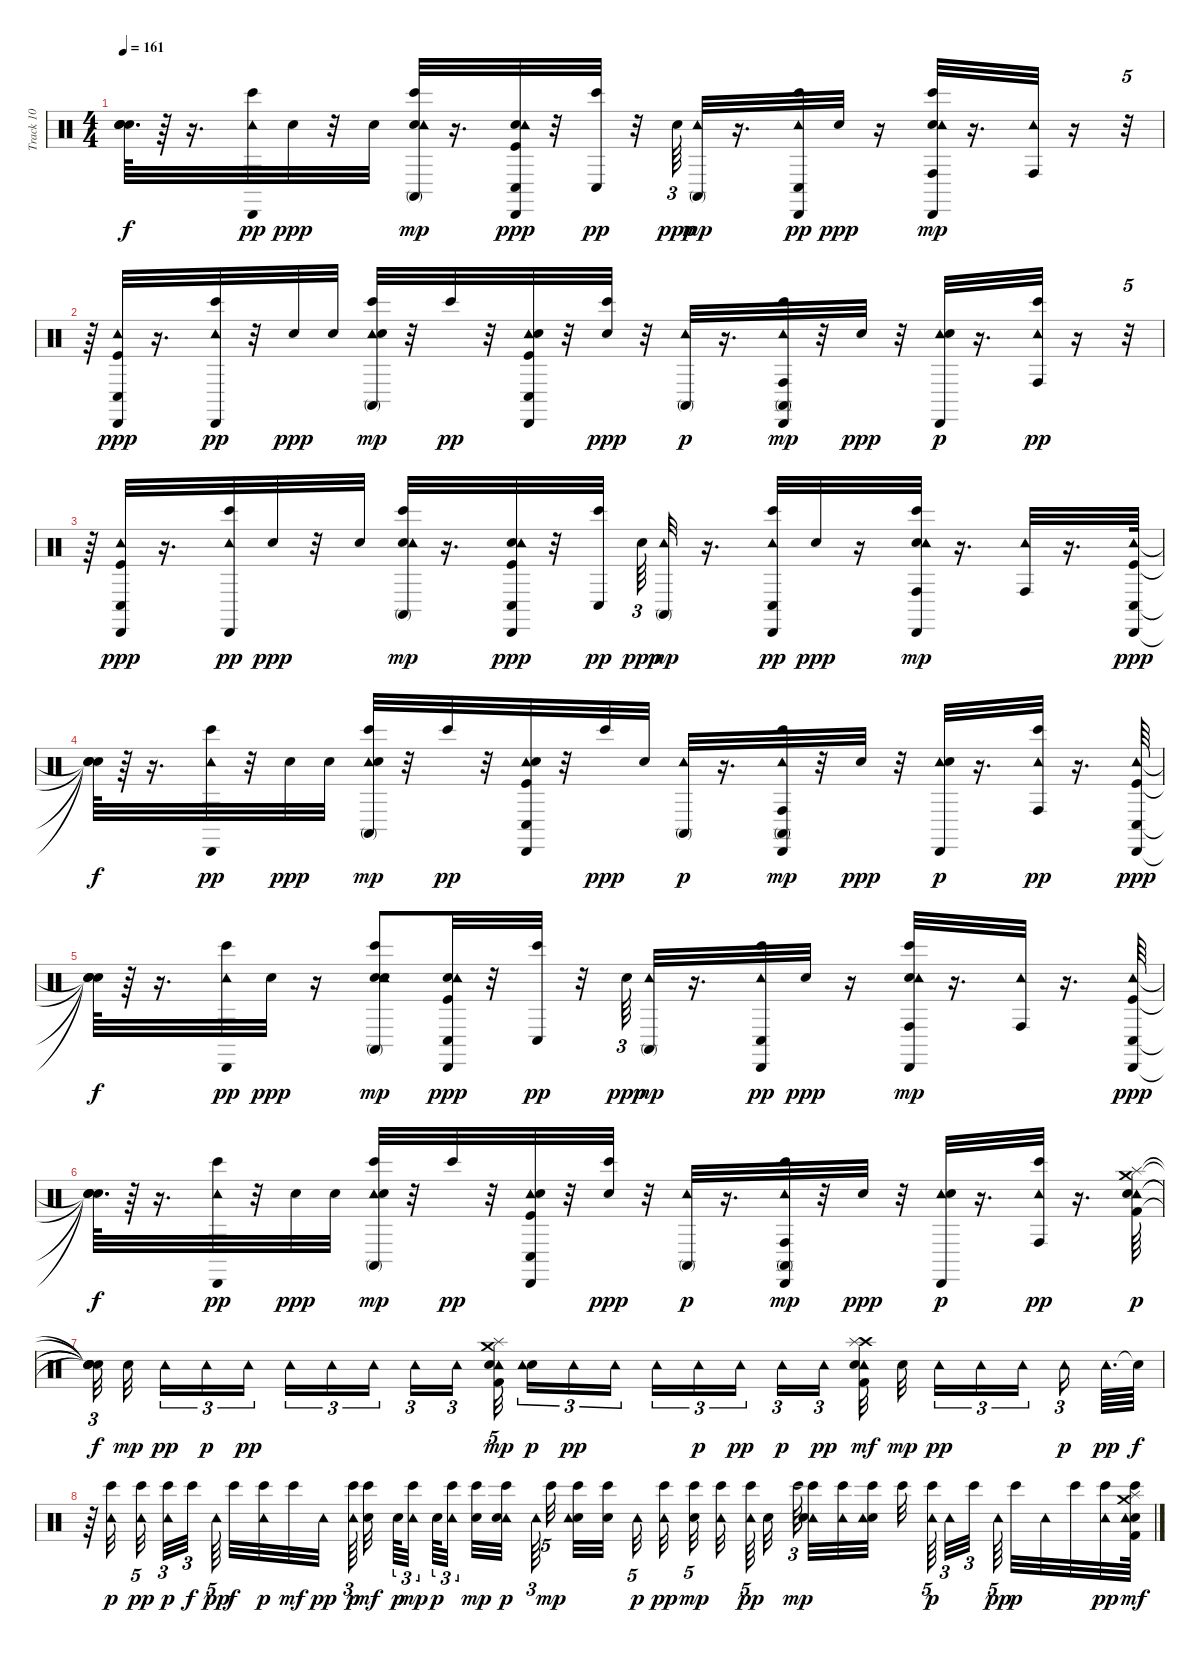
\track ("Track 10" "Track 10") {instrument percussion}
\staff {score}
\articulation defaults
\ts (4 4)
\tempo 161
\clef neutral
\ks c
("Snare (hit)"{t} "Snare (hit)"{t} "Snare (hit)"{t} "Snare (hit)"{t}).64{d dy f} r.64 r.16{d} ("Tambourine (hit)" "Cabasa (hit)" "Bongo High (hit)").32{dy pp} "Electric Snare (hit)".32{dy ppp} r.32 "Electric Snare (hit)".32 ("Electric Snare (hit)" "Tambourine (hit)" "Bongo High (hit)" "Conga high (mute)").32{dy mp} r.16{d} ("Kick (hit)" "Electric Snare (hit)" "Tambourine (hit)" "Cabasa (hit)" "Conga low (hit)").32{dy ppp} r.32 ("Bongo High (hit)" "Conga low (hit)").32{dy pp} r.32 "Electric Snare (hit)".64{tu (3 2) dy ppp} ("Tambourine (hit)" "Conga high (mute)").32{dy mp} r.16{d} ("Bongo High (hit)" "Tambourine (hit)" "Cabasa (hit)" "Conga low (hit)").32{dy pp} "Electric Snare (hit)".32{dy ppp} r.16 ("Electric Snare (hit)" "Bongo High (hit)" "Tambourine (hit)" "Cabasa (hit)" "Conga high (hit)").32{dy mp} r.16{d} ("Tambourine (hit)" "Conga high (hit)").32 r.16 r.32{tu (5 4)} |
r.64 ("Kick (hit)" "Tambourine (hit)" "Cabasa (hit)" "Conga low (hit)").32{dy ppp} r.16{d} ("Tambourine (hit)" "Cabasa (hit)" "Bongo High (hit)").32{dy pp} r.32 "Electric Snare (hit)".32{dy ppp} "Electric Snare (hit)".32 ("Tambourine (hit)" "Bongo High (hit)" "Conga high (mute)" "Electric Snare (hit)").32{dy mp} r.32 "Bongo High (hit)".32{dy pp} r.32 ("Tambourine (hit)" "Conga low (hit)" "Cabasa (hit)" "Kick (hit)" "Electric Snare (hit)").32 r.32 ("Bongo High (hit)" "Electric Snare (hit)").32{dy ppp} r.32 ("Tambourine (hit)" "Conga high (mute)").32{dy p} r.16{d} ("Tambourine (hit)" "Cabasa (hit)" "Bongo High (hit)" "Conga high (mute)" "Conga high (hit)").32{dy mp} r.32 "Electric Snare (hit)".32{dy ppp} r.32 ("Tambourine (hit)" "Cabasa (hit)" "Electric Snare (hit)").32{dy p} r.16{d} ("Tambourine (hit)" "Conga high (hit)" "Bongo High (hit)").32{dy pp} r.16 r.32{tu (5 4)} |
r.64 ("Kick (hit)" "Tambourine (hit)" "Cabasa (hit)" "Conga low (hit)").32{dy ppp} r.16{d} ("Tambourine (hit)" "Cabasa (hit)" "Bongo High (hit)").32{dy pp} "Electric Snare (hit)".32{dy ppp} r.32 "Electric Snare (hit)".32 ("Electric Snare (hit)" "Tambourine (hit)" "Bongo High (hit)" "Conga high (mute)").32{dy mp} r.16{d} ("Kick (hit)" "Electric Snare (hit)" "Tambourine (hit)" "Cabasa (hit)" "Conga low (hit)").32{dy ppp} r.32 ("Bongo High (hit)" "Conga low (hit)").32{dy pp beam splitsecondary} "Electric Snare (hit)".64{tu (3 2) dy ppp} ("Tambourine (hit)" "Conga high (mute)").32{dy mp} r.16{d} ("Bongo High (hit)" "Tambourine (hit)" "Cabasa (hit)" "Conga low (hit)").32{dy pp} "Electric Snare (hit)".32{dy ppp} r.16 ("Electric Snare (hit)" "Bongo High (hit)" "Tambourine (hit)" "Cabasa (hit)" "Conga high (hit)").32{dy mp} r.16{d} ("Tambourine (hit)" "Conga high (hit)").32 r.16{d} ("Kick (hit)" "Tambourine (hit)" "Cabasa (hit)" "Conga low (hit)").64{dy ppp} |
("Snare (hit)"{t} "Snare (hit)"{t} "Snare (hit)"{t} "Snare (hit)"{t}).64{dy f} r.64 r.16{d} ("Tambourine (hit)" "Cabasa (hit)" "Bongo High (hit)").32{dy pp} r.32 "Electric Snare (hit)".32{dy ppp} "Electric Snare (hit)".32 ("Tambourine (hit)" "Bongo High (hit)" "Conga high (mute)" "Electric Snare (hit)").32{dy mp} r.32 "Bongo High (hit)".32{dy pp} r.32 ("Tambourine (hit)" "Conga low (hit)" "Cabasa (hit)" "Kick (hit)" "Electric Snare (hit)").32 r.32 "Bongo High (hit)".32{dy ppp} "Electric Snare (hit)".32 ("Tambourine (hit)" "Conga high (mute)").32{dy p} r.16{d} ("Tambourine (hit)" "Cabasa (hit)" "Bongo High (hit)" "Conga high (mute)" "Conga high (hit)").32{dy mp} r.32 "Electric Snare (hit)".32{dy ppp} r.32 ("Tambourine (hit)" "Cabasa (hit)" "Electric Snare (hit)").32{dy p} r.16{d} ("Tambourine (hit)" "Conga high (hit)" "Bongo High (hit)").32{dy pp} r.16{d} ("Kick (hit)" "Tambourine (hit)" "Cabasa (hit)" "Conga low (hit)").64{dy ppp} |
("Snare (hit)"{t} "Snare (hit)"{t} "Snare (hit)"{t} "Snare (hit)"{t}).64{dy f} r.64 r.16{d} ("Tambourine (hit)" "Cabasa (hit)" "Bongo High (hit)").32{dy pp} "Electric Snare (hit)".32{dy ppp} r.16 ("Electric Snare (hit)" "Electric Snare (hit)" "Tambourine (hit)" "Bongo High (hit)" "Conga high (mute)").8{dy mp} ("Kick (hit)" "Electric Snare (hit)" "Tambourine (hit)" "Cabasa (hit)" "Conga low (hit)").32{dy ppp} r.32 ("Bongo High (hit)" "Conga low (hit)").32{dy pp} r.32 "Electric Snare (hit)".64{tu (3 2) dy ppp} ("Tambourine (hit)" "Conga high (mute)").32{dy mp} r.16{d} ("Bongo High (hit)" "Tambourine (hit)" "Cabasa (hit)" "Conga low (hit)").32{dy pp} "Electric Snare (hit)".32{dy ppp} r.16 ("Electric Snare (hit)" "Bongo High (hit)" "Tambourine (hit)" "Cabasa (hit)" "Conga high (hit)").32{dy mp} r.16{d} ("Tambourine (hit)" "Conga high (hit)").32 r.16{d} ("Kick (hit)" "Tambourine (hit)" "Cabasa (hit)" "Conga low (hit)").64{dy ppp} |
("Snare (hit)"{t} "Snare (hit)"{t} "Snare (hit)"{t} "Snare (hit)"{t}).64{d dy f} r.64 r.16{d} ("Tambourine (hit)" "Cabasa (hit)" "Bongo High (hit)").32{dy pp} r.32 "Electric Snare (hit)".32{dy ppp} "Electric Snare (hit)".32 ("Tambourine (hit)" "Bongo High (hit)" "Conga high (mute)" "Electric Snare (hit)").32{dy mp} r.32 "Bongo High (hit)".32{dy pp} r.32 ("Tambourine (hit)" "Conga low (hit)" "Cabasa (hit)" "Kick (hit)" "Electric Snare (hit)").32 r.32 ("Bongo High (hit)" "Electric Snare (hit)").32{dy ppp} r.32 ("Tambourine (hit)" "Conga high (mute)").32{dy p} r.16{d} ("Tambourine (hit)" "Cabasa (hit)" "Bongo High (hit)" "Conga high (mute)" "Conga high (hit)").32{dy mp} r.32 "Electric Snare (hit)".32{dy ppp} r.32 ("Tambourine (hit)" "Cabasa (hit)" "Electric Snare (hit)").32{dy p} r.16{d} ("Tambourine (hit)" "Conga high (hit)" "Bongo High (hit)").32{dy pp} r.16{d} ("Tambourine (hit)" "Splash (hit)" "Kick (hit) 2" "Electric Snare (hit)" "Crash medium (hit)").64{dy p} |
("Snare (hit)"{t} "Snare (hit)"{t} "Snare (hit)"{t} "Snare (hit)"{t} "Snare (hit)"{t}).32{tu (3 2) dy f beam splitsecondary} "Electric Snare (hit)".32{dy mp beam splitsecondary} "Tambourine (hit)".16{tu (3 2) dy pp} "Tambourine (hit)".16{tu (3 2) dy p} "Tambourine (hit)".16{tu (3 2) dy pp beam splitsecondary} "Tambourine (hit)".16{tu (3 2)} "Tambourine (hit)".16{tu (3 2)} "Tambourine (hit)".16{tu (3 2) beam splitsecondary} "Tambourine (hit)".16{tu (3 2)} "Tambourine (hit)".16{tu (3 2)} ("Tambourine (hit)" "Crash medium (hit)" "Electric Snare (hit)" "Splash (hit)" "Kick (hit) 2").32{tu (5 4) dy mp} ("Electric Snare (hit)" "Tambourine (hit)").16{tu (3 2) dy p} "Tambourine (hit)".16{tu (3 2) dy pp} "Tambourine (hit)".16{tu (3 2)} "Tambourine (hit)".16{tu (3 2)} "Tambourine (hit)".16{tu (3 2) dy p} "Tambourine (hit)".16{tu (3 2) dy pp beam splitsecondary} "Tambourine (hit)".16{tu (3 2) dy p} "Tambourine (hit)".16{tu (3 2) dy pp beam splitsecondary} ("Tambourine (hit)" "Crash high (hit)" "Electric Snare (hit)" "Kick (hit) 2" "Splash (hit)").32{dy mf} "Electric Snare (hit)".32{dy mp beam splitsecondary} "Tambourine (hit)".16{tu (3 2) dy pp} "Tambourine (hit)".16{tu (3 2)} "Tambourine (hit)".16{tu (3 2) beam splitsecondary} "Tambourine (hit)".16{tu (3 2) dy p beam splitsecondary} "Tambourine (hit)".64{d dy pp} "Snare (hit)"{t}.64{dy f} |
r.64 ("Bongo High (hit)" "Tambourine (hit)").32{dy p beam splitsecondary} ("Bongo High (hit)" "Tambourine (hit)").32{tu (5 4) dy pp} ("Bongo High (hit)" "Tambourine (hit)").32{tu (3 2) dy p} "Bongo High (hit)".32{tu (3 2) dy f} "Tambourine (hit)".64{tu (5 4) dy pp beam splitsecondary} "Bongo High (hit)".32{dy f} ("Tambourine (hit)" "Bongo High (hit)").32{dy p} "Bongo High (hit)".32{dy mf} "Tambourine (hit)".32{dy pp} ("Bongo High (hit)" "Tambourine (hit)").64{tu (3 2) dy p beam splitsecondary} ("Electric Snare (hit)" "Bongo High (hit)").32{dy mf beam splitsecondary} "Electric Snare (hit)".64{tu (3 2) dy p} ("Tambourine (hit)" "Bongo High (hit)").32{tu (3 2) dy mp beam splitsecondary} "Electric Snare (hit)".64{tu (3 2) dy p} ("Bongo High (hit)" "Tambourine (hit)").32{tu (3 2) beam splitsecondary} ("Electric Snare (hit)" "Bongo High (hit)").32{dy mp} ("Tambourine (hit)" "Bongo High (hit)" "Electric Snare (hit)").32{dy p beam splitsecondary} "Tambourine (hit)".64{tu (3 2)} "Bongo High (hit)".32{tu (5 4) dy mp beam splitsecondary} ("Electric Snare (hit)" "Tambourine (hit)" "Bongo High (hit)").32 ("Electric Snare (hit)" "Bongo High (hit)").32 "Tambourine (hit)".32{tu (5 4) dy p beam splitsecondary} ("Bongo High (hit)" "Tambourine (hit)").32{dy pp beam splitsecondary} ("Electric Snare (hit)" "Bongo High (hit)").32{tu (5 4) dy mp beam splitsecondary} ("Tambourine (hit)" "Bongo High (hit)").32{beam splitsecondary} ("Bongo High (hit)" "Tambourine (hit)").64{tu (5 4) dy pp beam splitsecondary} "Electric Snare (hit)".32{beam splitsecondary} "Bongo High (hit)".64{tu (3 2) dy mp beam splitsecondary} ("Tambourine (hit)" "Electric Snare (hit)" "Bongo High (hit)").32 ("Tambourine (hit)" "Bongo High (hit)").32 ("Electric Snare (hit)" "Tambourine (hit)" "Bongo High (hit)").32 "Bongo High (hit)".32{beam splitsecondary} ("Tambourine (hit)" "Bongo High (hit)").64{tu (5 4) dy p} "Tambourine (hit)".32{tu (3 2)} "Bongo High (hit)".32{tu (3 2)} "Tambourine (hit)".64{tu (5 4) dy pp beam splitsecondary} "Bongo High (hit)".32{dy p} "Tambourine (hit)".32 "Bongo High (hit)".32 ("Bongo High (hit)" "Tambourine (hit)").32{dy pp} ("Bongo High (hit)" "Crash medium (hit)" "Electric Snare (hit)" "Kick (hit) 2" "Tambourine (hit)" "Splash (hit)").64{dy mf}
